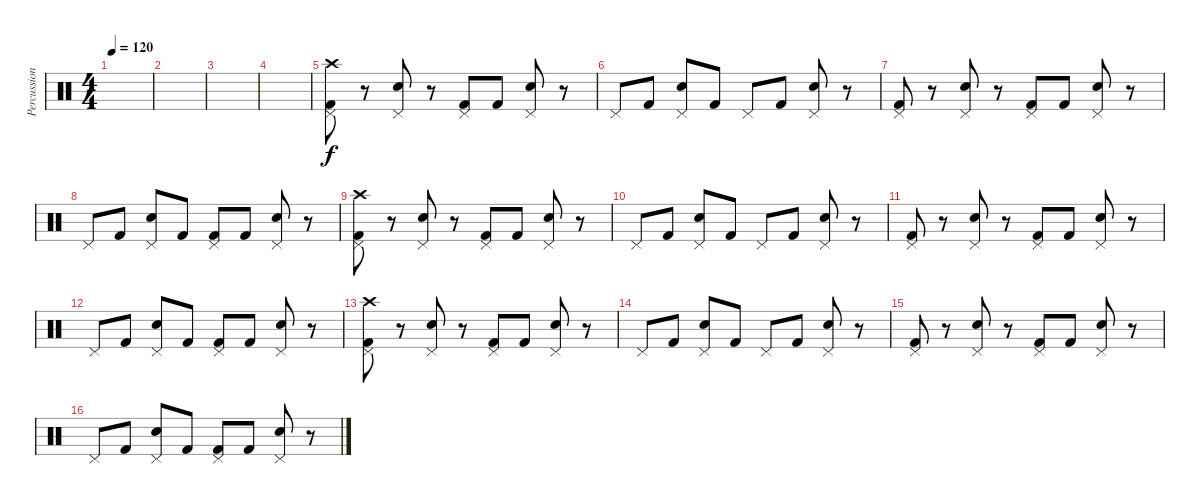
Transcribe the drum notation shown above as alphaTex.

\track ("Percussion" "Percussion") {instrument percussion}
\staff {score}
\articulation defaults
\ts (4 4)
\tempo 120
\clef neutral
\ks c
|
|
|
|
("Crash high (hit)" "Kick (hit) 2" "Pedal Hi-Hat (hit)").8 r.8 ("Electric Snare (hit)" "Pedal Hi-Hat (hit)").8 r.8 ("Kick (hit) 2" "Pedal Hi-Hat (hit)").8 "Kick (hit) 2".8 ("Electric Snare (hit)" "Pedal Hi-Hat (hit)").8 r.8 |
"Pedal Hi-Hat (hit)".8 "Kick (hit) 2".8 ("Electric Snare (hit)" "Pedal Hi-Hat (hit)").8 "Kick (hit) 2".8 "Pedal Hi-Hat (hit)".8 "Kick (hit) 2".8 ("Electric Snare (hit)" "Pedal Hi-Hat (hit)").8 r.8 |
("Kick (hit) 2" "Pedal Hi-Hat (hit)").8 r.8 ("Electric Snare (hit)" "Pedal Hi-Hat (hit)").8 r.8 ("Kick (hit) 2" "Pedal Hi-Hat (hit)").8 "Kick (hit) 2".8 ("Electric Snare (hit)" "Pedal Hi-Hat (hit)").8 r.8 |
"Pedal Hi-Hat (hit)".8 "Kick (hit) 2".8 ("Electric Snare (hit)" "Pedal Hi-Hat (hit)").8 "Kick (hit) 2".8 ("Kick (hit) 2" "Pedal Hi-Hat (hit)").8 "Kick (hit) 2".8 ("Electric Snare (hit)" "Pedal Hi-Hat (hit)").8 r.8 |
("Crash high (hit)" "Kick (hit) 2" "Pedal Hi-Hat (hit)").8 r.8 ("Electric Snare (hit)" "Pedal Hi-Hat (hit)").8 r.8 ("Kick (hit) 2" "Pedal Hi-Hat (hit)").8 "Kick (hit) 2".8 ("Electric Snare (hit)" "Pedal Hi-Hat (hit)").8 r.8 |
"Pedal Hi-Hat (hit)".8 "Kick (hit) 2".8 ("Electric Snare (hit)" "Pedal Hi-Hat (hit)").8 "Kick (hit) 2".8 "Pedal Hi-Hat (hit)".8 "Kick (hit) 2".8 ("Electric Snare (hit)" "Pedal Hi-Hat (hit)").8 r.8 |
("Kick (hit) 2" "Pedal Hi-Hat (hit)").8 r.8 ("Electric Snare (hit)" "Pedal Hi-Hat (hit)").8 r.8 ("Kick (hit) 2" "Pedal Hi-Hat (hit)").8 "Kick (hit) 2".8 ("Electric Snare (hit)" "Pedal Hi-Hat (hit)").8 r.8 |
"Pedal Hi-Hat (hit)".8 "Kick (hit) 2".8 ("Electric Snare (hit)" "Pedal Hi-Hat (hit)").8 "Kick (hit) 2".8 ("Kick (hit) 2" "Pedal Hi-Hat (hit)").8 "Kick (hit) 2".8 ("Electric Snare (hit)" "Pedal Hi-Hat (hit)").8 r.8 |
("Crash high (hit)" "Kick (hit) 2" "Pedal Hi-Hat (hit)").8 r.8 ("Electric Snare (hit)" "Pedal Hi-Hat (hit)").8 r.8 ("Kick (hit) 2" "Pedal Hi-Hat (hit)").8 "Kick (hit) 2".8 ("Electric Snare (hit)" "Pedal Hi-Hat (hit)").8 r.8 |
"Pedal Hi-Hat (hit)".8 "Kick (hit) 2".8 ("Electric Snare (hit)" "Pedal Hi-Hat (hit)").8 "Kick (hit) 2".8 "Pedal Hi-Hat (hit)".8 "Kick (hit) 2".8 ("Electric Snare (hit)" "Pedal Hi-Hat (hit)").8 r.8 |
("Kick (hit) 2" "Pedal Hi-Hat (hit)").8 r.8 ("Electric Snare (hit)" "Pedal Hi-Hat (hit)").8 r.8 ("Kick (hit) 2" "Pedal Hi-Hat (hit)").8 "Kick (hit) 2".8 ("Electric Snare (hit)" "Pedal Hi-Hat (hit)").8 r.8 |
"Pedal Hi-Hat (hit)".8 "Kick (hit) 2".8 ("Electric Snare (hit)" "Pedal Hi-Hat (hit)").8 "Kick (hit) 2".8 ("Kick (hit) 2" "Pedal Hi-Hat (hit)").8 "Kick (hit) 2".8 ("Electric Snare (hit)" "Pedal Hi-Hat (hit)").8 r.8
